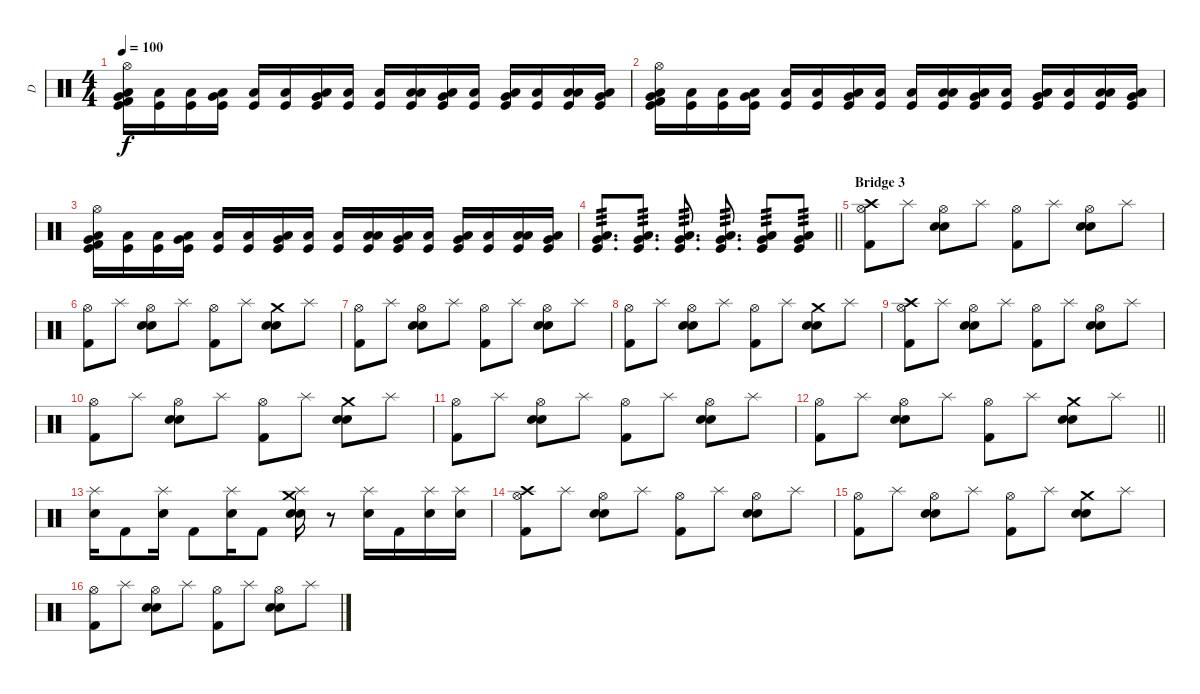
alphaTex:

\track ("D" "D") {instrument percussion}
\staff {score}
\articulation defaults
\ts (4 4)
\tempo 100
\clef neutral
\ks c
("Hi-Hat (open)" "Very Low Tom (hit)" "Kick (hit) 2" "Kick (hit)" "Low Floor Tom (hit)").16{dy f} ("Kick (hit)" "Low Floor Tom (hit)").16 ("Kick (hit)" "Low Floor Tom (hit)").16 ("Very Low Tom (hit)" "Kick (hit)" "Low Floor Tom (hit)").16 ("Kick (hit)" "Low Floor Tom (hit)").16 ("Kick (hit)" "Low Floor Tom (hit)").16 ("Very Low Tom (hit)" "Kick (hit)" "Low Floor Tom (hit)").16 ("Kick (hit)" "Low Floor Tom (hit)").16 ("Kick (hit)" "Low Floor Tom (hit)").16 ("Low Tom (hit)" "Kick (hit)" "Low Floor Tom (hit)").16 ("Very Low Tom (hit)" "Kick (hit)" "Low Floor Tom (hit)").16 ("Kick (hit)" "Low Floor Tom (hit)").16 ("Very Low Tom (hit)" "Kick (hit)" "Low Floor Tom (hit)").16 ("Kick (hit)" "Low Floor Tom (hit)").16 ("Low Tom (hit)" "Kick (hit)" "Low Floor Tom (hit)").16 ("Very Low Tom (hit)" "Kick (hit)" "Low Floor Tom (hit)").16 |
("Hi-Hat (open)" "Very Low Tom (hit)" "Kick (hit) 2" "Kick (hit)" "Low Floor Tom (hit)").16 ("Kick (hit)" "Low Floor Tom (hit)").16 ("Kick (hit)" "Low Floor Tom (hit)").16 ("Very Low Tom (hit)" "Kick (hit)" "Low Floor Tom (hit)").16 ("Kick (hit)" "Low Floor Tom (hit)").16 ("Kick (hit)" "Low Floor Tom (hit)").16 ("Very Low Tom (hit)" "Kick (hit)" "Low Floor Tom (hit)").16 ("Kick (hit)" "Low Floor Tom (hit)").16 ("Kick (hit)" "Low Floor Tom (hit)").16 ("Low Tom (hit)" "Kick (hit)" "Low Floor Tom (hit)").16 ("Very Low Tom (hit)" "Kick (hit)" "Low Floor Tom (hit)").16 ("Kick (hit)" "Low Floor Tom (hit)").16 ("Very Low Tom (hit)" "Kick (hit)" "Low Floor Tom (hit)").16 ("Kick (hit)" "Low Floor Tom (hit)").16 ("Low Tom (hit)" "Kick (hit)" "Low Floor Tom (hit)").16 ("Very Low Tom (hit)" "Kick (hit)" "Low Floor Tom (hit)").16 |
("Hi-Hat (open)" "Very Low Tom (hit)" "Kick (hit) 2" "Kick (hit)" "Low Floor Tom (hit)").16 ("Kick (hit)" "Low Floor Tom (hit)").16 ("Kick (hit)" "Low Floor Tom (hit)").16 ("Very Low Tom (hit)" "Kick (hit)" "Low Floor Tom (hit)").16 ("Kick (hit)" "Low Floor Tom (hit)").16 ("Kick (hit)" "Low Floor Tom (hit)").16 ("Very Low Tom (hit)" "Kick (hit)" "Low Floor Tom (hit)").16 ("Kick (hit)" "Low Floor Tom (hit)").16 ("Kick (hit)" "Low Floor Tom (hit)").16 ("Low Tom (hit)" "Kick (hit)" "Low Floor Tom (hit)").16 ("Very Low Tom (hit)" "Kick (hit)" "Low Floor Tom (hit)").16 ("Kick (hit)" "Low Floor Tom (hit)").16 ("Very Low Tom (hit)" "Kick (hit)" "Low Floor Tom (hit)").16 ("Kick (hit)" "Low Floor Tom (hit)").16 ("Low Tom (hit)" "Kick (hit)" "Low Floor Tom (hit)").16 ("Very Low Tom (hit)" "Kick (hit)" "Low Floor Tom (hit)").16 |
\barLineRight lightlight
("Low Tom (hit)" "Kick (hit)" "Very Low Tom (hit)").8{d tp 3} ("Low Tom (hit)" "Kick (hit)" "Very Low Tom (hit)").8{d tp 3} ("Low Tom (hit)" "Kick (hit)" "Very Low Tom (hit)").8{d tp 3} ("Low Tom (hit)" "Kick (hit)" "Very Low Tom (hit)").8{d tp 3} ("Low Tom (hit)" "Kick (hit)" "Very Low Tom (hit)").8{tp 3} ("Low Tom (hit)" "Kick (hit)" "Very Low Tom (hit)").8{tp 3} |
\section ("" "Bridge 3")
("Crash high (hit)" "Kick (hit) 2" "Hi-Hat (open)").8 "Splash (hit)".8 ("Electric Snare (hit)" "Electric Snare (hit)" "Hi-Hat (open)").8 "Splash (hit)".8 ("Kick (hit) 2" "Hi-Hat (open)").8 "Splash (hit)".8 ("Electric Snare (hit)" "Electric Snare (hit)" "Hi-Hat (open)").8 "Splash (hit)".8 |
("Kick (hit) 2" "Hi-Hat (open)").8 "Splash (hit)".8 ("Electric Snare (hit)" "Electric Snare (hit)" "Hi-Hat (open)").8 "Splash (hit)".8 ("Kick (hit) 2" "Hi-Hat (open)").8 "Splash (hit)".8 ("Crash medium (hit)" "Electric Snare (hit)" "Electric Snare (hit)").8 "Splash (hit)".8 |
("Kick (hit) 2" "Hi-Hat (open)").8 "Splash (hit)".8 ("Electric Snare (hit)" "Electric Snare (hit)" "Hi-Hat (open)").8 "Splash (hit)".8 ("Kick (hit) 2" "Hi-Hat (open)").8 "Splash (hit)".8 ("Electric Snare (hit)" "Electric Snare (hit)" "Hi-Hat (open)").8 "Splash (hit)".8 |
("Kick (hit) 2" "Hi-Hat (open)").8 "Splash (hit)".8 ("Electric Snare (hit)" "Electric Snare (hit)" "Hi-Hat (open)").8 "Splash (hit)".8 ("Kick (hit) 2" "Hi-Hat (open)").8 "Splash (hit)".8 ("Crash medium (hit)" "Electric Snare (hit)" "Electric Snare (hit)").8 "Splash (hit)".8 |
("Crash high (hit)" "Kick (hit) 2" "Hi-Hat (open)").8 "Splash (hit)".8 ("Electric Snare (hit)" "Electric Snare (hit)" "Hi-Hat (open)").8 "Splash (hit)".8 ("Kick (hit) 2" "Hi-Hat (open)").8 "Splash (hit)".8 ("Electric Snare (hit)" "Electric Snare (hit)" "Hi-Hat (open)").8 "Splash (hit)".8 |
("Kick (hit) 2" "Hi-Hat (open)").8 "Splash (hit)".8 ("Electric Snare (hit)" "Electric Snare (hit)" "Hi-Hat (open)").8 "Splash (hit)".8 ("Kick (hit) 2" "Hi-Hat (open)").8 "Splash (hit)".8 ("Crash medium (hit)" "Electric Snare (hit)" "Electric Snare (hit)").8 "Splash (hit)".8 |
("Kick (hit) 2" "Hi-Hat (open)").8 "Splash (hit)".8 ("Electric Snare (hit)" "Electric Snare (hit)" "Hi-Hat (open)").8 "Splash (hit)".8 ("Kick (hit) 2" "Hi-Hat (open)").8 "Splash (hit)".8 ("Electric Snare (hit)" "Electric Snare (hit)" "Hi-Hat (open)").8 "Splash (hit)".8 |
\barLineRight lightlight
("Kick (hit) 2" "Hi-Hat (open)").8 "Splash (hit)".8 ("Electric Snare (hit)" "Electric Snare (hit)" "Hi-Hat (open)").8 "Splash (hit)".8 ("Kick (hit) 2" "Hi-Hat (open)").8 "Splash (hit)".8 ("Crash medium (hit)" "Electric Snare (hit)" "Electric Snare (hit)").8 "Splash (hit)".8 |
("Electric Snare (hit)" "Splash (hit)").16 "Kick (hit) 2".8 ("Electric Snare (hit)" "Splash (hit)").16 "Kick (hit) 2".8 ("Electric Snare (hit)" "Splash (hit)").16 "Kick (hit) 2".8 ("Crash medium (hit)" "Electric Snare (hit)" "Electric Snare (hit)" "Splash (hit)").16 r.8 ("Electric Snare (hit)" "Splash (hit)").16 "Kick (hit) 2".16 ("Electric Snare (hit)" "Splash (hit)").16 ("Electric Snare (hit)" "Splash (hit)").16 |
("Crash high (hit)" "Kick (hit) 2" "Hi-Hat (open)").8 "Splash (hit)".8 ("Electric Snare (hit)" "Electric Snare (hit)" "Hi-Hat (open)").8 "Splash (hit)".8 ("Kick (hit) 2" "Hi-Hat (open)").8 "Splash (hit)".8 ("Electric Snare (hit)" "Electric Snare (hit)" "Hi-Hat (open)").8 "Splash (hit)".8 |
("Kick (hit) 2" "Hi-Hat (open)").8 "Splash (hit)".8 ("Electric Snare (hit)" "Electric Snare (hit)" "Hi-Hat (open)").8 "Splash (hit)".8 ("Kick (hit) 2" "Hi-Hat (open)").8 "Splash (hit)".8 ("Crash medium (hit)" "Electric Snare (hit)" "Electric Snare (hit)").8 "Splash (hit)".8 |
("Kick (hit) 2" "Hi-Hat (open)").8 "Splash (hit)".8 ("Electric Snare (hit)" "Electric Snare (hit)" "Hi-Hat (open)").8 "Splash (hit)".8 ("Kick (hit) 2" "Hi-Hat (open)").8 "Splash (hit)".8 ("Electric Snare (hit)" "Electric Snare (hit)" "Hi-Hat (open)").8 "Splash (hit)".8
